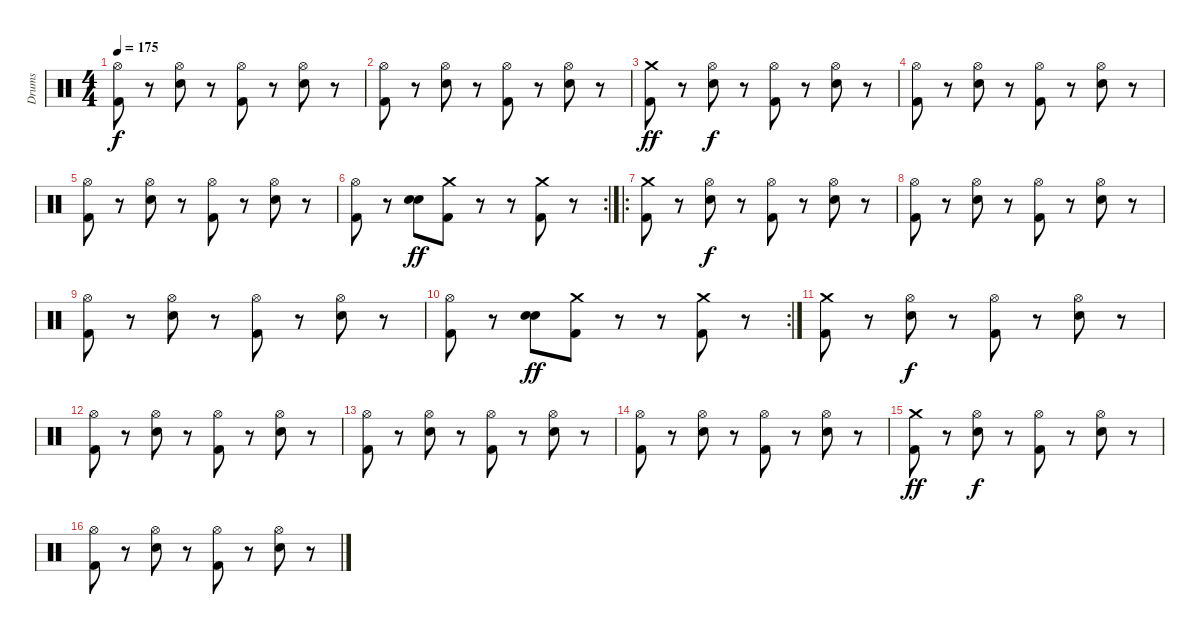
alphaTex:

\track ("Drums" "Drums") {instrument percussion}
\staff {score}
\articulation defaults
\ts (4 4)
\tempo 175
\clef neutral
\ks c
("Hi-Hat (open)" "Kick (hit) 2").8{dy f} r.8 ("Hi-Hat (open)" "Electric Snare (hit)").8 r.8 ("Hi-Hat (open)" "Kick (hit) 2").8 r.8 ("Hi-Hat (open)" "Electric Snare (hit)").8 r.8 |
("Hi-Hat (open)" "Kick (hit) 2").8 r.8 ("Hi-Hat (open)" "Electric Snare (hit)").8 r.8 ("Hi-Hat (open)" "Kick (hit) 2").8 r.8 ("Hi-Hat (open)" "Electric Snare (hit)").8 r.8 |
("Crash medium (hit)" "Kick (hit) 2").8{dy ff} r.8 ("Hi-Hat (open)" "Electric Snare (hit)").8{dy f} r.8 ("Hi-Hat (open)" "Kick (hit) 2").8 r.8 ("Hi-Hat (open)" "Electric Snare (hit)").8 r.8 |
("Hi-Hat (open)" "Kick (hit) 2").8 r.8 ("Hi-Hat (open)" "Electric Snare (hit)").8 r.8 ("Hi-Hat (open)" "Kick (hit) 2").8 r.8 ("Hi-Hat (open)" "Electric Snare (hit)").8 r.8 |
("Hi-Hat (open)" "Kick (hit) 2").8 r.8 ("Hi-Hat (open)" "Electric Snare (hit)").8 r.8 ("Hi-Hat (open)" "Kick (hit) 2").8 r.8 ("Hi-Hat (open)" "Electric Snare (hit)").8 r.8 |
\rc 2
("Hi-Hat (open)" "Kick (hit) 2").8 r.8 ("Electric Snare (hit)" "Electric Snare (hit)").8{bd 240 dy ff} ("Crash medium (hit)" "Kick (hit) 2").8 r.8 r.8 ("Crash medium (hit)" "Kick (hit) 2").8 r.8 |
\ro
("Crash medium (hit)" "Kick (hit) 2").8 r.8 ("Hi-Hat (open)" "Electric Snare (hit)").8{dy f} r.8 ("Hi-Hat (open)" "Kick (hit) 2").8 r.8 ("Hi-Hat (open)" "Electric Snare (hit)").8 r.8 |
("Hi-Hat (open)" "Kick (hit) 2").8 r.8 ("Hi-Hat (open)" "Electric Snare (hit)").8 r.8 ("Hi-Hat (open)" "Kick (hit) 2").8 r.8 ("Hi-Hat (open)" "Electric Snare (hit)").8 r.8 |
("Hi-Hat (open)" "Kick (hit) 2").8 r.8 ("Hi-Hat (open)" "Electric Snare (hit)").8 r.8 ("Hi-Hat (open)" "Kick (hit) 2").8 r.8 ("Hi-Hat (open)" "Electric Snare (hit)").8 r.8 |
\rc 2
("Hi-Hat (open)" "Kick (hit) 2").8 r.8 ("Electric Snare (hit)" "Electric Snare (hit)").8{bd 240 dy ff} ("Crash medium (hit)" "Kick (hit) 2").8 r.8 r.8 ("Crash medium (hit)" "Kick (hit) 2").8 r.8 |
("Crash medium (hit)" "Kick (hit) 2").8 r.8 ("Hi-Hat (open)" "Electric Snare (hit)").8{dy f} r.8 ("Hi-Hat (open)" "Kick (hit) 2").8 r.8 ("Hi-Hat (open)" "Electric Snare (hit)").8 r.8 |
("Hi-Hat (open)" "Kick (hit) 2").8 r.8 ("Hi-Hat (open)" "Electric Snare (hit)").8 r.8 ("Hi-Hat (open)" "Kick (hit) 2").8 r.8 ("Hi-Hat (open)" "Electric Snare (hit)").8 r.8 |
("Hi-Hat (open)" "Kick (hit) 2").8 r.8 ("Hi-Hat (open)" "Electric Snare (hit)").8 r.8 ("Hi-Hat (open)" "Kick (hit) 2").8 r.8 ("Hi-Hat (open)" "Electric Snare (hit)").8 r.8 |
("Hi-Hat (open)" "Kick (hit) 2").8 r.8 ("Hi-Hat (open)" "Electric Snare (hit)").8 r.8 ("Hi-Hat (open)" "Kick (hit) 2").8 r.8 ("Hi-Hat (open)" "Electric Snare (hit)").8 r.8 |
("Crash medium (hit)" "Kick (hit) 2").8{dy ff} r.8 ("Hi-Hat (open)" "Electric Snare (hit)").8{dy f} r.8 ("Hi-Hat (open)" "Kick (hit) 2").8 r.8 ("Hi-Hat (open)" "Electric Snare (hit)").8 r.8 |
("Hi-Hat (open)" "Kick (hit) 2").8 r.8 ("Hi-Hat (open)" "Electric Snare (hit)").8 r.8 ("Hi-Hat (open)" "Kick (hit) 2").8 r.8 ("Hi-Hat (open)" "Electric Snare (hit)").8 r.8
